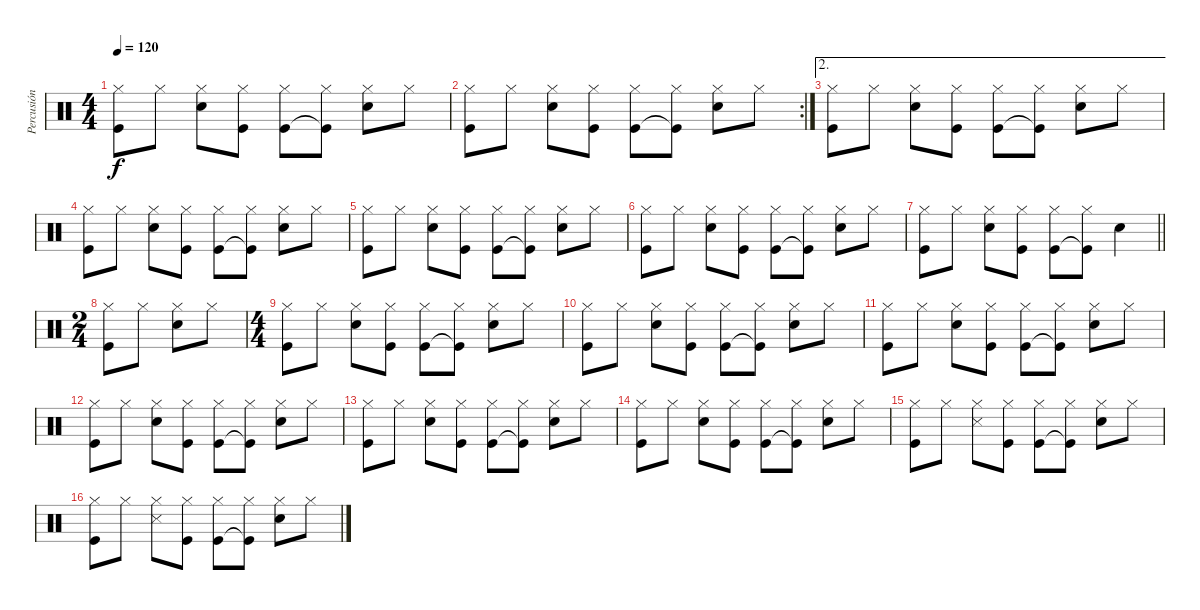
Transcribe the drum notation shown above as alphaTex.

\track ("Percusión" "Percusión") {instrument percussion}
\staff {score}
\articulation defaults
\ts (4 4)
\tempo 120
\clef neutral
\ks c
("Hi-Hat (closed)" "Kick (hit)").8{dy f} "Hi-Hat (closed)".8 ("Hi-Hat (closed)" "Snare (hit) 2").8 ("Hi-Hat (closed)" "Kick (hit)").8 ("Hi-Hat (closed)" "Kick (hit)").8 ("Hi-Hat (closed)" "Kick (hit)"{t}).8 ("Snare (hit) 2" "Hi-Hat (closed)").8 "Hi-Hat (closed)".8 |
\rc 2
("Hi-Hat (closed)" "Kick (hit)").8 "Hi-Hat (closed)".8 ("Hi-Hat (closed)" "Snare (hit) 2").8 ("Hi-Hat (closed)" "Kick (hit)").8 ("Hi-Hat (closed)" "Kick (hit)").8 ("Hi-Hat (closed)" "Kick (hit)"{t}).8 ("Snare (hit) 2" "Hi-Hat (closed)").8 "Hi-Hat (closed)".8 |
\ae 2
("Hi-Hat (closed)" "Kick (hit)").8 "Hi-Hat (closed)".8 ("Hi-Hat (closed)" "Snare (hit) 2").8 ("Hi-Hat (closed)" "Kick (hit)").8 ("Hi-Hat (closed)" "Kick (hit)").8 ("Hi-Hat (closed)" "Kick (hit)"{t}).8 ("Hi-Hat (closed)" "Snare (hit) 2").8 "Hi-Hat (closed)".8 |
("Hi-Hat (closed)" "Kick (hit)").8 "Hi-Hat (closed)".8 ("Hi-Hat (closed)" "Snare (hit) 2").8 ("Hi-Hat (closed)" "Kick (hit)").8 ("Hi-Hat (closed)" "Kick (hit)").8 ("Hi-Hat (closed)" "Kick (hit)"{t}).8 ("Hi-Hat (closed)" "Snare (hit) 2").8 "Hi-Hat (closed)".8 |
("Hi-Hat (closed)" "Kick (hit)").8 "Hi-Hat (closed)".8 ("Hi-Hat (closed)" "Snare (hit) 2").8 ("Hi-Hat (closed)" "Kick (hit)").8 ("Hi-Hat (closed)" "Kick (hit)").8 ("Hi-Hat (closed)" "Kick (hit)"{t}).8 ("Hi-Hat (closed)" "Snare (hit) 2").8 "Hi-Hat (closed)".8 |
("Hi-Hat (closed)" "Kick (hit)").8 "Hi-Hat (closed)".8 ("Hi-Hat (closed)" "Snare (hit) 2").8 ("Hi-Hat (closed)" "Kick (hit)").8 ("Hi-Hat (closed)" "Kick (hit)").8 ("Hi-Hat (closed)" "Kick (hit)"{t}).8 ("Hi-Hat (closed)" "Snare (hit) 2").8 "Hi-Hat (closed)".8 |
\barLineRight lightlight
("Hi-Hat (closed)" "Kick (hit)").8 "Hi-Hat (closed)".8 ("Hi-Hat (closed)" "Snare (hit) 2").8 ("Hi-Hat (closed)" "Kick (hit)").8 ("Hi-Hat (closed)" "Kick (hit)").8 ("Hi-Hat (closed)" "Kick (hit)"{t}).8 "Snare (hit) 2".4 |
\ts (2 4)
("Hi-Hat (closed)" "Kick (hit)").8 "Hi-Hat (closed)".8 ("Hi-Hat (closed)" "Snare (hit) 2").8 "Hi-Hat (closed)".8 |
\ts (4 4)
("Kick (hit)" "Hi-Hat (closed)").8 "Hi-Hat (closed)".8 ("Hi-Hat (closed)" "Snare (hit) 2").8 ("Hi-Hat (closed)" "Kick (hit)").8 ("Hi-Hat (closed)" "Kick (hit)").8 ("Hi-Hat (closed)" "Kick (hit)"{t}).8 ("Hi-Hat (closed)" "Snare (hit) 2").8 "Hi-Hat (closed)".8 |
("Kick (hit)" "Hi-Hat (closed)").8 "Hi-Hat (closed)".8 ("Hi-Hat (closed)" "Snare (hit) 2").8 ("Hi-Hat (closed)" "Kick (hit)").8 ("Hi-Hat (closed)" "Kick (hit)").8 ("Hi-Hat (closed)" "Kick (hit)"{t}).8 ("Hi-Hat (closed)" "Snare (hit) 2").8 "Hi-Hat (closed)".8 |
("Kick (hit)" "Hi-Hat (closed)").8 "Hi-Hat (closed)".8 ("Hi-Hat (closed)" "Snare (hit) 2").8 ("Hi-Hat (closed)" "Kick (hit)").8 ("Hi-Hat (closed)" "Kick (hit)").8 ("Hi-Hat (closed)" "Kick (hit)"{t}).8 ("Hi-Hat (closed)" "Snare (hit) 2").8 "Hi-Hat (closed)".8 |
("Kick (hit)" "Hi-Hat (closed)").8 "Hi-Hat (closed)".8 ("Hi-Hat (closed)" "Snare (hit) 2").8 ("Hi-Hat (closed)" "Kick (hit)").8 ("Hi-Hat (closed)" "Kick (hit)").8 ("Hi-Hat (closed)" "Kick (hit)"{t}).8 ("Hi-Hat (closed)" "Snare (hit) 2").8 "Hi-Hat (closed)".8 |
("Kick (hit)" "Hi-Hat (closed)").8 "Hi-Hat (closed)".8 ("Hi-Hat (closed)" "Snare (hit) 2").8 ("Hi-Hat (closed)" "Kick (hit)").8 ("Hi-Hat (closed)" "Kick (hit)").8 ("Hi-Hat (closed)" "Kick (hit)"{t}).8 ("Hi-Hat (closed)" "Snare (hit) 2").8 "Hi-Hat (closed)".8 |
("Kick (hit)" "Hi-Hat (closed)").8 "Hi-Hat (closed)".8 ("Hi-Hat (closed)" "Snare (hit) 2").8 ("Hi-Hat (closed)" "Kick (hit)").8 ("Hi-Hat (closed)" "Kick (hit)").8 ("Hi-Hat (closed)" "Kick (hit)"{t}).8 ("Hi-Hat (closed)" "Snare (hit) 2").8 "Hi-Hat (closed)".8 |
("Hi-Hat (closed)" "Kick (hit)").8 "Hi-Hat (closed)".8 ("Hi-Hat (closed)" "Snare (side stick) 3").8 ("Hi-Hat (closed)" "Kick (hit)").8 ("Hi-Hat (closed)" "Kick (hit)").8 ("Hi-Hat (closed)" "Kick (hit)"{t}).8 ("Hi-Hat (closed)" "Snare (hit) 2").8 "Hi-Hat (closed)".8 |
("Hi-Hat (closed)" "Kick (hit)").8 "Hi-Hat (closed)".8 ("Hi-Hat (closed)" "Snare (side stick) 3").8 ("Hi-Hat (closed)" "Kick (hit)").8 ("Hi-Hat (closed)" "Kick (hit)").8 ("Hi-Hat (closed)" "Kick (hit)"{t}).8 ("Hi-Hat (closed)" "Snare (hit) 2").8 "Hi-Hat (closed)".8
